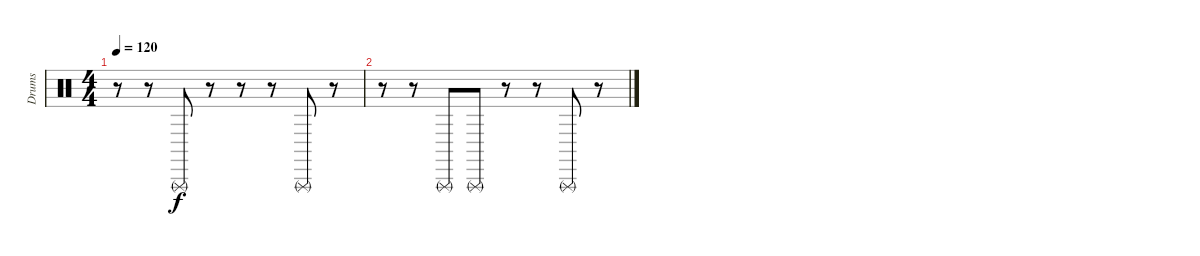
\track ("Drums" "Drums") {instrument percussion}
\staff {score}
\articulation defaults
\ts (4 4)
\tempo 120
\clef neutral
\ks c
r.8{dy f} r.8 "Triangle (rnute)".8 r.8 r.8 r.8 "Triangle (rnute)".8 r.8 |
r.8 r.8 "Triangle (rnute)".8 "Triangle (rnute)".8 r.8 r.8 "Triangle (rnute)".8 r.8
